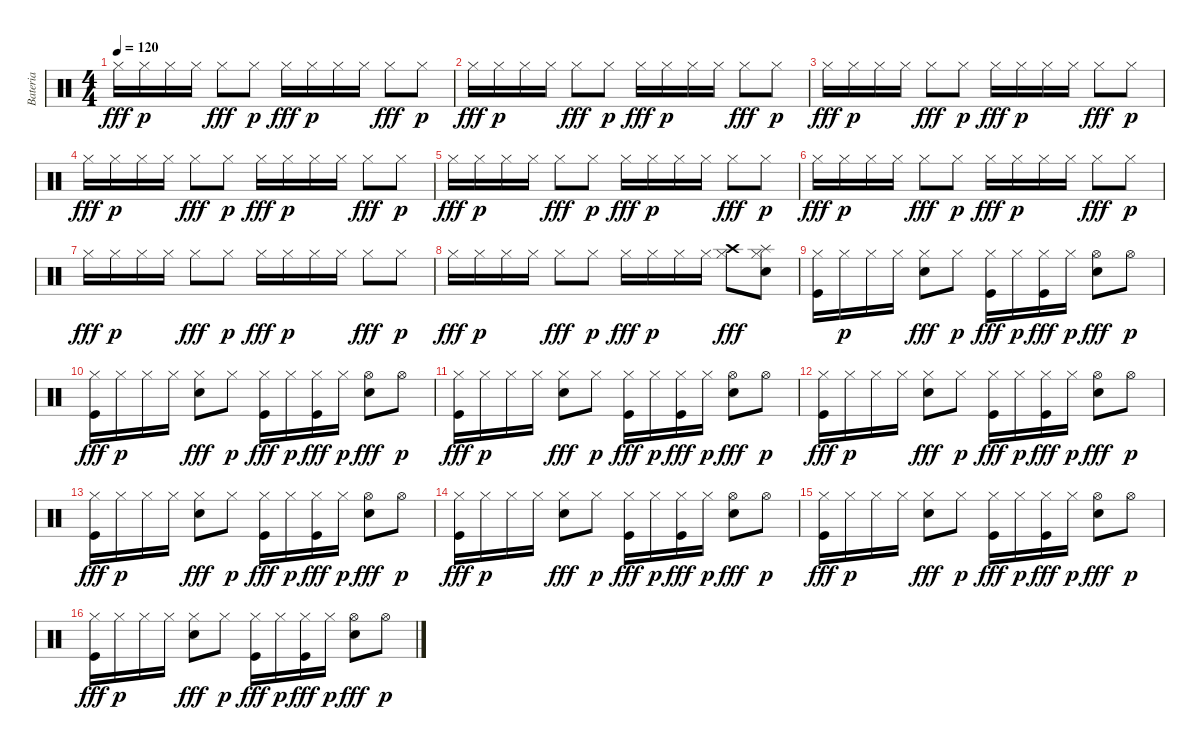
\track ("Bateria" "Bateria") {instrument percussion}
\staff {score}
\articulation defaults
\ts (4 4)
\tempo 120
\clef neutral
\ks c "Hi-Hat (closed)".16{dy fff} "Hi-Hat (closed)".16{dy p} "Hi-Hat (closed)".16 "Hi-Hat (closed)".16 "Hi-Hat (closed)".8{dy fff} "Hi-Hat (closed)".8{dy p} "Hi-Hat (closed)".16{dy fff} "Hi-Hat (closed)".16{dy p} "Hi-Hat (closed)".16 "Hi-Hat (closed)".16 "Hi-Hat (closed)".8{dy fff} "Hi-Hat (closed)".8{dy p}
|
"Hi-Hat (closed)".16{dy fff} "Hi-Hat (closed)".16{dy p} "Hi-Hat (closed)".16 "Hi-Hat (closed)".16 "Hi-Hat (closed)".8{dy fff} "Hi-Hat (closed)".8{dy p} "Hi-Hat (closed)".16{dy fff} "Hi-Hat (closed)".16{dy p} "Hi-Hat (closed)".16 "Hi-Hat (closed)".16 "Hi-Hat (closed)".8{dy fff} "Hi-Hat (closed)".8{dy p} |
"Hi-Hat (closed)".16{dy fff} "Hi-Hat (closed)".16{dy p} "Hi-Hat (closed)".16 "Hi-Hat (closed)".16 "Hi-Hat (closed)".8{dy fff} "Hi-Hat (closed)".8{dy p} "Hi-Hat (closed)".16{dy fff} "Hi-Hat (closed)".16{dy p} "Hi-Hat (closed)".16 "Hi-Hat (closed)".16 "Hi-Hat (closed)".8{dy fff} "Hi-Hat (closed)".8{dy p} |
"Hi-Hat (closed)".16{dy fff} "Hi-Hat (closed)".16{dy p} "Hi-Hat (closed)".16 "Hi-Hat (closed)".16 "Hi-Hat (closed)".8{dy fff} "Hi-Hat (closed)".8{dy p} "Hi-Hat (closed)".16{dy fff} "Hi-Hat (closed)".16{dy p} "Hi-Hat (closed)".16 "Hi-Hat (closed)".16 "Hi-Hat (closed)".8{dy fff} "Hi-Hat (closed)".8{dy p} |
"Hi-Hat (closed)".16{dy fff} "Hi-Hat (closed)".16{dy p} "Hi-Hat (closed)".16 "Hi-Hat (closed)".16 "Hi-Hat (closed)".8{dy fff} "Hi-Hat (closed)".8{dy p} "Hi-Hat (closed)".16{dy fff} "Hi-Hat (closed)".16{dy p} "Hi-Hat (closed)".16 "Hi-Hat (closed)".16 "Hi-Hat (closed)".8{dy fff} "Hi-Hat (closed)".8{dy p} |
"Hi-Hat (closed)".16{dy fff} "Hi-Hat (closed)".16{dy p} "Hi-Hat (closed)".16 "Hi-Hat (closed)".16 "Hi-Hat (closed)".8{dy fff} "Hi-Hat (closed)".8{dy p} "Hi-Hat (closed)".16{dy fff} "Hi-Hat (closed)".16{dy p} "Hi-Hat (closed)".16 "Hi-Hat (closed)".16 "Hi-Hat (closed)".8{dy fff} "Hi-Hat (closed)".8{dy p} |
"Hi-Hat (closed)".16{dy fff} "Hi-Hat (closed)".16{dy p} "Hi-Hat (closed)".16 "Hi-Hat (closed)".16 "Hi-Hat (closed)".8{dy fff} "Hi-Hat (closed)".8{dy p} "Hi-Hat (closed)".16{dy fff} "Hi-Hat (closed)".16{dy p} "Hi-Hat (closed)".16 "Hi-Hat (closed)".16 "Hi-Hat (closed)".8{dy fff} "Hi-Hat (closed)".8{dy p} |
"Hi-Hat (closed)".16{dy fff} "Hi-Hat (closed)".16{dy p} "Hi-Hat (closed)".16 "Hi-Hat (closed)".16 "Hi-Hat (closed)".8{dy fff} "Hi-Hat (closed)".8{dy p} "Hi-Hat (closed)".16{dy fff} "Hi-Hat (closed)".16{dy p} "Hi-Hat (closed)".16 "Hi-Hat (closed)".16 ("Hi-Hat (closed)" "Crash high (hit)").8{dy fff} ("Hi-Hat (closed)" "Splash (hit)" "Snare (hit) 2").8 |
("Hi-Hat (closed)" "Kick (hit)").16 "Hi-Hat (closed)".16{dy p} "Hi-Hat (closed)".16 "Hi-Hat (closed)".16 ("Hi-Hat (closed)" "Snare (hit) 2").8{dy fff} "Hi-Hat (closed)".8{dy p} ("Hi-Hat (closed)" "Kick (hit)").16{dy fff} "Hi-Hat (closed)".16{dy p} ("Hi-Hat (closed)" "Kick (hit)").16{dy fff} "Hi-Hat (closed)".16{dy p} ("Hi-Hat (open)" "Snare (hit) 2").8{dy fff} "Hi-Hat (open)".8{dy p} |
("Hi-Hat (closed)" "Kick (hit)").16{dy fff} "Hi-Hat (closed)".16{dy p} "Hi-Hat (closed)".16 "Hi-Hat (closed)".16 ("Hi-Hat (closed)" "Snare (hit) 2").8{dy fff} "Hi-Hat (closed)".8{dy p} ("Hi-Hat (closed)" "Kick (hit)").16{dy fff} "Hi-Hat (closed)".16{dy p} ("Hi-Hat (closed)" "Kick (hit)").16{dy fff} "Hi-Hat (closed)".16{dy p} ("Hi-Hat (open)" "Snare (hit) 2").8{dy fff} "Hi-Hat (open)".8{dy p} |
("Hi-Hat (closed)" "Kick (hit)").16{dy fff} "Hi-Hat (closed)".16{dy p} "Hi-Hat (closed)".16 "Hi-Hat (closed)".16 ("Hi-Hat (closed)" "Snare (hit) 2").8{dy fff} "Hi-Hat (closed)".8{dy p} ("Hi-Hat (closed)" "Kick (hit)").16{dy fff} "Hi-Hat (closed)".16{dy p} ("Hi-Hat (closed)" "Kick (hit)").16{dy fff} "Hi-Hat (closed)".16{dy p} ("Hi-Hat (open)" "Snare (hit) 2").8{dy fff} "Hi-Hat (open)".8{dy p} |
("Hi-Hat (closed)" "Kick (hit)").16{dy fff} "Hi-Hat (closed)".16{dy p} "Hi-Hat (closed)".16 "Hi-Hat (closed)".16 ("Hi-Hat (closed)" "Snare (hit) 2").8{dy fff} "Hi-Hat (closed)".8{dy p} ("Hi-Hat (closed)" "Kick (hit)").16{dy fff} "Hi-Hat (closed)".16{dy p} ("Hi-Hat (closed)" "Kick (hit)").16{dy fff} "Hi-Hat (closed)".16{dy p} ("Hi-Hat (open)" "Snare (hit) 2").8{dy fff} "Hi-Hat (open)".8{dy p} |
("Hi-Hat (closed)" "Kick (hit)").16{dy fff} "Hi-Hat (closed)".16{dy p} "Hi-Hat (closed)".16 "Hi-Hat (closed)".16 ("Hi-Hat (closed)" "Snare (hit) 2").8{dy fff} "Hi-Hat (closed)".8{dy p} ("Hi-Hat (closed)" "Kick (hit)").16{dy fff} "Hi-Hat (closed)".16{dy p} ("Hi-Hat (closed)" "Kick (hit)").16{dy fff} "Hi-Hat (closed)".16{dy p} ("Hi-Hat (open)" "Snare (hit) 2").8{dy fff} "Hi-Hat (open)".8{dy p} |
("Hi-Hat (closed)" "Kick (hit)").16{dy fff} "Hi-Hat (closed)".16{dy p} "Hi-Hat (closed)".16 "Hi-Hat (closed)".16 ("Hi-Hat (closed)" "Snare (hit) 2").8{dy fff} "Hi-Hat (closed)".8{dy p} ("Hi-Hat (closed)" "Kick (hit)").16{dy fff} "Hi-Hat (closed)".16{dy p} ("Hi-Hat (closed)" "Kick (hit)").16{dy fff} "Hi-Hat (closed)".16{dy p} ("Hi-Hat (open)" "Snare (hit) 2").8{dy fff} "Hi-Hat (open)".8{dy p} |
("Hi-Hat (closed)" "Kick (hit)").16{dy fff} "Hi-Hat (closed)".16{dy p} "Hi-Hat (closed)".16 "Hi-Hat (closed)".16 ("Hi-Hat (closed)" "Snare (hit) 2").8{dy fff} "Hi-Hat (closed)".8{dy p} ("Hi-Hat (closed)" "Kick (hit)").16{dy fff} "Hi-Hat (closed)".16{dy p} ("Hi-Hat (closed)" "Kick (hit)").16{dy fff} "Hi-Hat (closed)".16{dy p} ("Hi-Hat (open)" "Snare (hit) 2").8{dy fff} "Hi-Hat (open)".8{dy p} |
("Hi-Hat (closed)" "Kick (hit)").16{dy fff} "Hi-Hat (closed)".16{dy p} "Hi-Hat (closed)".16 "Hi-Hat (closed)".16 ("Hi-Hat (closed)" "Snare (hit) 2").8{dy fff} "Hi-Hat (closed)".8{dy p} ("Hi-Hat (closed)" "Kick (hit)").16{dy fff} "Hi-Hat (closed)".16{dy p} ("Hi-Hat (closed)" "Kick (hit)").16{dy fff} "Hi-Hat (closed)".16{dy p} ("Hi-Hat (open)" "Snare (hit) 2").8{dy fff} "Hi-Hat (open)".8{dy p}
